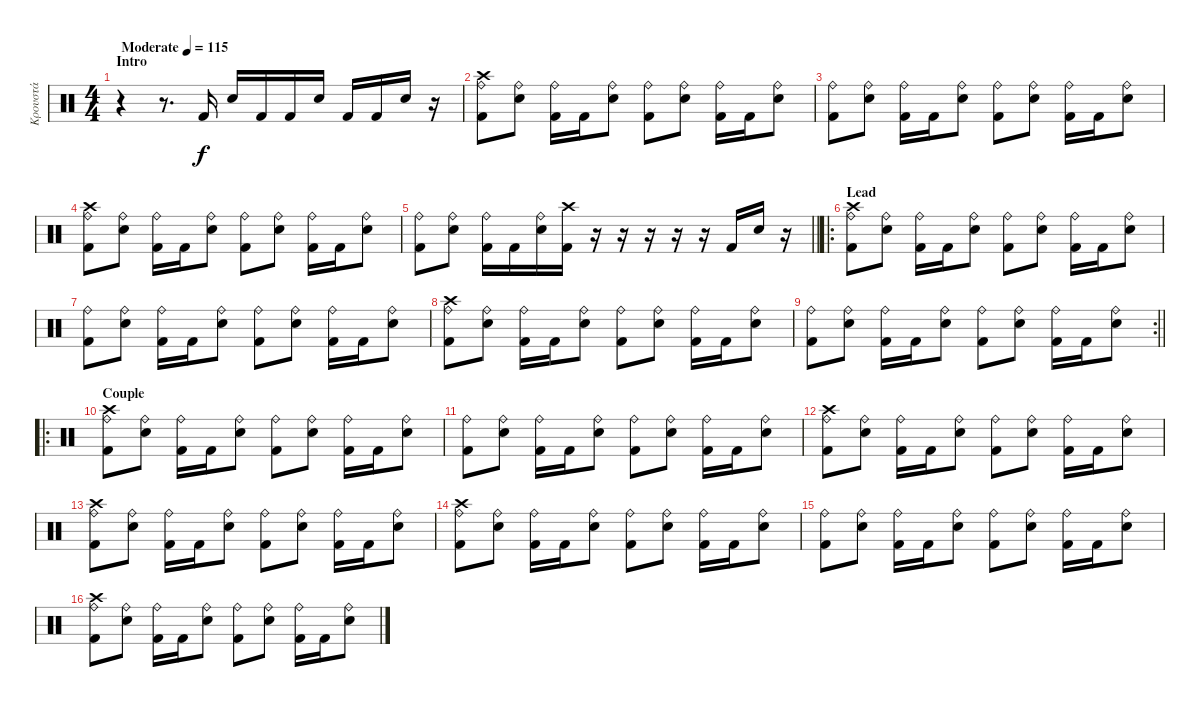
\track ("Κρουστά" "Κρουστά") {instrument percussion}
\staff {score}
\articulation defaults
\ts (4 4)
\section ("" "Intro")
\tempo (115 "Moderate")
\clef neutral
\ks c
r.4{dy f} r.8{d} "Kick (hit) 2".16 "Snare (hit) 2".16 "Kick (hit) 2".16 "Kick (hit) 2".16 "Snare (hit) 2".16 "Kick (hit) 2".16 "Kick (hit) 2".16 "Snare (hit) 2".16 r.16 |
("Crash high (hit)" "Ride (bell)" "Kick (hit) 2").8 ("Ride (bell)" "Snare (hit) 2").8 ("Ride (bell)" "Kick (hit) 2").16 "Kick (hit) 2".16 ("Ride (bell)" "Snare (hit) 2").8 ("Ride (bell)" "Kick (hit) 2").8 ("Ride (bell)" "Snare (hit) 2").8 ("Ride (bell)" "Kick (hit) 2").16 "Kick (hit) 2".16 ("Ride (bell)" "Snare (hit) 2").8 |
("Ride (bell)" "Kick (hit) 2").8 ("Ride (bell)" "Snare (hit) 2").8 ("Ride (bell)" "Kick (hit) 2").16 "Kick (hit) 2".16 ("Ride (bell)" "Snare (hit) 2").8 ("Ride (bell)" "Kick (hit) 2").8 ("Ride (bell)" "Snare (hit) 2").8 ("Ride (bell)" "Kick (hit) 2").16 "Kick (hit) 2".16 ("Ride (bell)" "Snare (hit) 2").8 |
("Crash high (hit)" "Ride (bell)" "Kick (hit) 2").8 ("Ride (bell)" "Snare (hit) 2").8 ("Ride (bell)" "Kick (hit) 2").16 "Kick (hit) 2".16 ("Ride (bell)" "Snare (hit) 2").8 ("Ride (bell)" "Kick (hit) 2").8 ("Ride (bell)" "Snare (hit) 2").8 ("Ride (bell)" "Kick (hit) 2").16 "Kick (hit) 2".16 ("Ride (bell)" "Snare (hit) 2").8 |
\barLineRight lightlight
("Ride (bell)" "Kick (hit) 2").8 ("Ride (bell)" "Snare (hit) 2").8 ("Ride (bell)" "Kick (hit) 2").16 "Kick (hit) 2".16 ("Ride (bell)" "Snare (hit) 2").16 ("Crash high (hit)" "Kick (hit) 2").16 r.16 r.16 r.16 r.16 r.16 "Kick (hit) 2".16 "Snare (hit) 2".16 r.16 |
\ro
\section ("" "Lead")
("Crash high (hit)" "Ride (bell)" "Kick (hit) 2").8 ("Ride (bell)" "Snare (hit) 2").8 ("Ride (bell)" "Kick (hit) 2").16 "Kick (hit) 2".16 ("Ride (bell)" "Snare (hit) 2").8 ("Ride (bell)" "Kick (hit) 2").8 ("Ride (bell)" "Snare (hit) 2").8 ("Ride (bell)" "Kick (hit) 2").16 "Kick (hit) 2".16 ("Ride (bell)" "Snare (hit) 2").8 |
("Ride (bell)" "Kick (hit) 2").8 ("Ride (bell)" "Snare (hit) 2").8 ("Ride (bell)" "Kick (hit) 2").16 "Kick (hit) 2".16 ("Ride (bell)" "Snare (hit) 2").8 ("Ride (bell)" "Kick (hit) 2").8 ("Ride (bell)" "Snare (hit) 2").8 ("Ride (bell)" "Kick (hit) 2").16 "Kick (hit) 2".16 ("Ride (bell)" "Snare (hit) 2").8 |
("Crash high (hit)" "Ride (bell)" "Kick (hit) 2").8 ("Ride (bell)" "Snare (hit) 2").8 ("Ride (bell)" "Kick (hit) 2").16 "Kick (hit) 2".16 ("Ride (bell)" "Snare (hit) 2").8 ("Ride (bell)" "Kick (hit) 2").8 ("Ride (bell)" "Snare (hit) 2").8 ("Ride (bell)" "Kick (hit) 2").16 "Kick (hit) 2".16 ("Ride (bell)" "Snare (hit) 2").8 |
\rc 2
\barLineRight lightlight
("Ride (bell)" "Kick (hit) 2").8 ("Ride (bell)" "Snare (hit) 2").8 ("Ride (bell)" "Kick (hit) 2").16 "Kick (hit) 2".16 ("Ride (bell)" "Snare (hit) 2").8 ("Ride (bell)" "Kick (hit) 2").8 ("Ride (bell)" "Snare (hit) 2").8 ("Ride (bell)" "Kick (hit) 2").16 "Kick (hit) 2".16 ("Ride (bell)" "Snare (hit) 2").8 |
\ro
\section ("" "Couple")
("Crash high (hit)" "Ride (bell)" "Kick (hit) 2").8 ("Ride (bell)" "Snare (hit) 2").8 ("Ride (bell)" "Kick (hit) 2").16 "Kick (hit) 2".16 ("Ride (bell)" "Snare (hit) 2").8 ("Ride (bell)" "Kick (hit) 2").8 ("Ride (bell)" "Snare (hit) 2").8 ("Ride (bell)" "Kick (hit) 2").16 "Kick (hit) 2".16 ("Ride (bell)" "Snare (hit) 2").8 |
("Ride (bell)" "Kick (hit) 2").8 ("Ride (bell)" "Snare (hit) 2").8 ("Ride (bell)" "Kick (hit) 2").16 "Kick (hit) 2".16 ("Ride (bell)" "Snare (hit) 2").8 ("Ride (bell)" "Kick (hit) 2").8 ("Ride (bell)" "Snare (hit) 2").8 ("Ride (bell)" "Kick (hit) 2").16 "Kick (hit) 2".16 ("Ride (bell)" "Snare (hit) 2").8 |
("Crash high (hit)" "Ride (bell)" "Kick (hit) 2").8 ("Ride (bell)" "Snare (hit) 2").8 ("Ride (bell)" "Kick (hit) 2").16 "Kick (hit) 2".16 ("Ride (bell)" "Snare (hit) 2").8 ("Ride (bell)" "Kick (hit) 2").8 ("Ride (bell)" "Snare (hit) 2").8 ("Ride (bell)" "Kick (hit) 2").16 "Kick (hit) 2".16 ("Ride (bell)" "Snare (hit) 2").8 |
("Crash high (hit)" "Ride (bell)" "Kick (hit) 2").8 ("Ride (bell)" "Snare (hit) 2").8 ("Ride (bell)" "Kick (hit) 2").16 "Kick (hit) 2".16 ("Ride (bell)" "Snare (hit) 2").8 ("Ride (bell)" "Kick (hit) 2").8 ("Ride (bell)" "Snare (hit) 2").8 ("Ride (bell)" "Kick (hit) 2").16 "Kick (hit) 2".16 ("Ride (bell)" "Snare (hit) 2").8 |
("Crash high (hit)" "Ride (bell)" "Kick (hit) 2").8 ("Ride (bell)" "Snare (hit) 2").8 ("Ride (bell)" "Kick (hit) 2").16 "Kick (hit) 2".16 ("Ride (bell)" "Snare (hit) 2").8 ("Ride (bell)" "Kick (hit) 2").8 ("Ride (bell)" "Snare (hit) 2").8 ("Ride (bell)" "Kick (hit) 2").16 "Kick (hit) 2".16 ("Ride (bell)" "Snare (hit) 2").8 |
("Ride (bell)" "Kick (hit) 2").8 ("Ride (bell)" "Snare (hit) 2").8 ("Ride (bell)" "Kick (hit) 2").16 "Kick (hit) 2".16 ("Ride (bell)" "Snare (hit) 2").8 ("Ride (bell)" "Kick (hit) 2").8 ("Ride (bell)" "Snare (hit) 2").8 ("Ride (bell)" "Kick (hit) 2").16 "Kick (hit) 2".16 ("Ride (bell)" "Snare (hit) 2").8 |
("Crash high (hit)" "Ride (bell)" "Kick (hit) 2").8 ("Ride (bell)" "Snare (hit) 2").8 ("Ride (bell)" "Kick (hit) 2").16 "Kick (hit) 2".16 ("Ride (bell)" "Snare (hit) 2").8 ("Ride (bell)" "Kick (hit) 2").8 ("Ride (bell)" "Snare (hit) 2").8 ("Ride (bell)" "Kick (hit) 2").16 "Kick (hit) 2".16 ("Ride (bell)" "Snare (hit) 2").8
